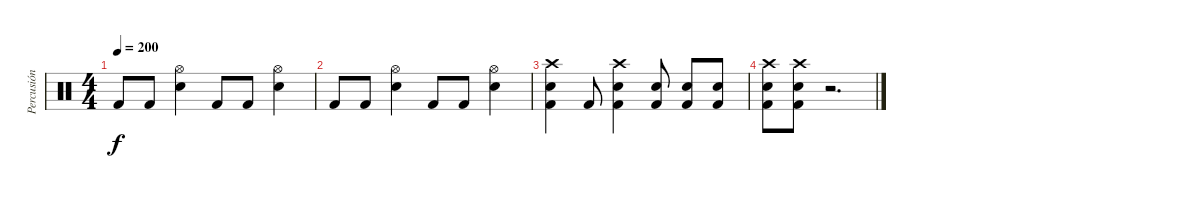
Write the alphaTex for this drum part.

\track ("Percusión" "Percusión") {instrument percussion}
\staff {score}
\articulation defaults
\ts (4 4)
\tempo 200
\clef neutral
\ks c "Kick (hit) 2".8{dy f} "Kick (hit) 2".8
("Hi-Hat (open)" "Snare (hit) 2").4 "Kick (hit) 2".8 "Kick (hit) 2".8 ("Hi-Hat (open)" "Snare (hit) 2").4 |
"Kick (hit) 2".8 "Kick (hit) 2".8 ("Hi-Hat (open)" "Snare (hit) 2").4 "Kick (hit) 2".8 "Kick (hit) 2".8 ("Hi-Hat (open)" "Snare (hit) 2").4 |
("Crash high (hit)" "Snare (hit) 2" "Kick (hit) 2").4 "Kick (hit) 2".8 ("Crash high (hit)" "Snare (hit) 2" "Kick (hit) 2").4 ("Snare (hit) 2" "Kick (hit) 2").8 ("Snare (hit) 2" "Kick (hit) 2").8 ("Snare (hit) 2" "Kick (hit) 2").8 |
("Crash high (hit)" "Snare (hit) 2" "Kick (hit) 2").8 ("Crash high (hit)" "Snare (hit) 2" "Kick (hit) 2").8 r.2{d}
